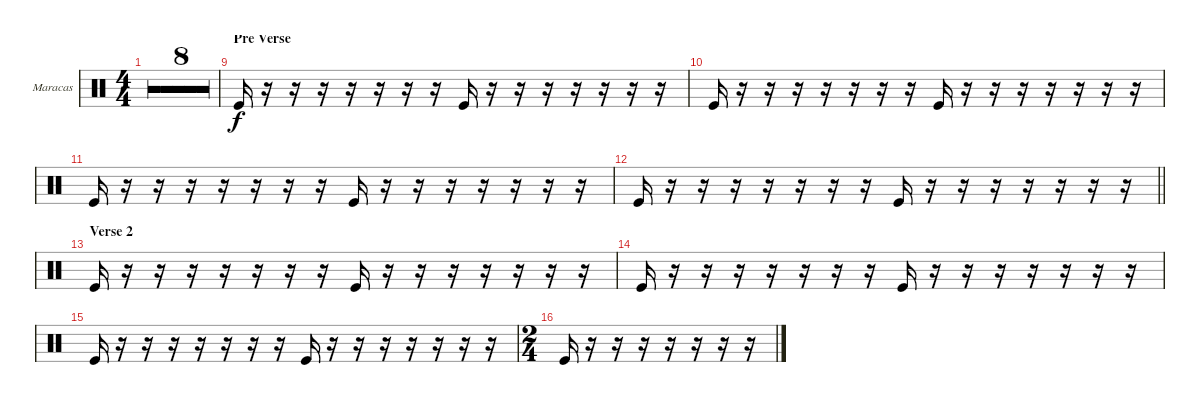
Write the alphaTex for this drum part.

\bracketExtendMode groupsimilarinstruments
\firstSystemTrackNameOrientation horizontal
\otherSystemsTrackNameOrientation horizontal
\track ("Maracas" "Maracas") {multiBarRest instrument percussion}
\staff {score}
\articulation defaults
\ts (4 4)
\tempo 90
\clef neutral
\ks c
r.16{dy f} r.16 r.16 r.16 r.16 r.16 r.16 r.16 r.16 r.16 r.16 r.16 r.16 r.16 r.16 r.16 |
r.16 r.16 r.16 r.16 r.16 r.16 r.16 r.16 r.16 r.16 r.16 r.16 r.16 r.16 r.16 r.16 |
r.16 r.16 r.16 r.16 r.16 r.16 r.16 r.16 r.16 r.16 r.16 r.16 r.16 r.16 r.16 r.16 |
r.16 r.16 r.16 r.16 r.16 r.16 r.16 r.16 r.16 r.16 r.16 r.16 r.16 r.16 r.16 r.16 |
r.16 r.16 r.16 r.16 r.16 r.16 r.16 r.16 r.16 r.16 r.16 r.16 r.16 r.16 r.16 r.16 |
r.16 r.16 r.16 r.16 r.16 r.16 r.16 r.16 r.16 r.16 r.16 r.16 r.16 r.16 r.16 r.16 |
r.16 r.16 r.16 r.16 r.16 r.16 r.16 r.16 r.16 r.16 r.16 r.16 r.16 r.16 r.16 r.16 |
\barLineRight lightlight
r.16 r.16 r.16 r.16 r.16 r.16 r.16 r.16 r.16 r.16 r.16 r.16 r.16 r.16 r.16 r.16 |
\section ("" "Pre Verse")
"Kick (hit)".16 r.16 r.16 r.16 r.16 r.16 r.16 r.16 "Kick (hit)".16 r.16 r.16 r.16 r.16 r.16 r.16 r.16 |
"Kick (hit)".16 r.16 r.16 r.16 r.16 r.16 r.16 r.16 "Kick (hit)".16 r.16 r.16 r.16 r.16 r.16 r.16 r.16 |
"Kick (hit)".16 r.16 r.16 r.16 r.16 r.16 r.16 r.16 "Kick (hit)".16 r.16 r.16 r.16 r.16 r.16 r.16 r.16 |
\barLineRight lightlight "Kick (hit)".16
r.16 r.16 r.16 r.16 r.16 r.16 r.16 "Kick (hit)".16 r.16 r.16 r.16 r.16 r.16 r.16 r.16 |
\section ("" "Verse 2")
"Kick (hit)".16 r.16 r.16 r.16 r.16 r.16 r.16 r.16 "Kick (hit)".16 r.16 r.16 r.16 r.16 r.16 r.16 r.16 |
"Kick (hit)".16 r.16 r.16 r.16 r.16 r.16 r.16 r.16 "Kick (hit)".16 r.16 r.16 r.16 r.16 r.16 r.16 r.16 |
"Kick (hit)".16 r.16 r.16 r.16 r.16 r.16 r.16 r.16 "Kick (hit)".16 r.16 r.16 r.16 r.16 r.16 r.16 r.16 |
\ts (2 4)
\beaming (8 2 2)
"Kick (hit)".16 r.16 r.16 r.16 r.16 r.16 r.16 r.16
